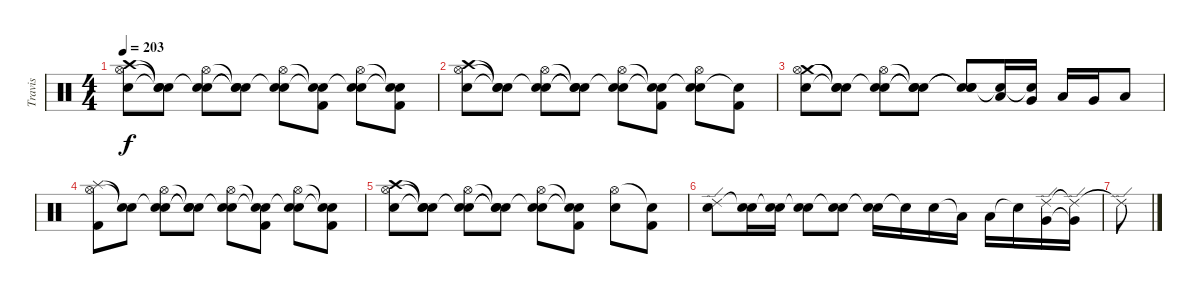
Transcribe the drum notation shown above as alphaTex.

\track ("Travis" "Travis") {instrument percussion}
\staff {score}
\articulation defaults
\ts (4 4)
\tempo 203
\clef neutral
\ks c
("Crash high (hit)" "Hi-Hat (open)" "Electric Snare (hit)").8{dy f} ("Snare (hit)"{t} "Snare (hit)"{t} "Snare (hit)"{t}).8 ("Snare (hit)"{t} "Hi-Hat (open)" "Electric Snare (hit)").8 ("Snare (hit)"{t} "Snare (hit)"{t} "Snare (hit)"{t}).8 ("Snare (hit)"{t} "Hi-Hat (open)" "Electric Snare (hit)").8 ("Snare (hit)"{t} "Snare (hit)"{t} "Kick (hit) 2").8 ("Snare (hit)"{t} "Hi-Hat (open)" "Electric Snare (hit)").8 ("Snare (hit)"{t} "Snare (hit)"{t} "Kick (hit) 2").8 |
("Crash high (hit)" "Hi-Hat (open)" "Electric Snare (hit)").8 ("Snare (hit)"{t} "Snare (hit)"{t} "Snare (hit)"{t}).8 ("Snare (hit)"{t} "Hi-Hat (open)" "Electric Snare (hit)").8 ("Snare (hit)"{t} "Snare (hit)"{t} "Snare (hit)"{t}).8 ("Snare (hit)"{t} "Hi-Hat (open)" "Electric Snare (hit)").8 ("Snare (hit)"{t} "Snare (hit)"{t} "Kick (hit) 2").8 ("Snare (hit)"{t} "Hi-Hat (open)" "Electric Snare (hit)").8 ("Snare (hit)"{t} "Kick (hit) 2").8 |
("Crash medium (hit)" "Hi-Hat (open)" "Electric Snare (hit)").8 ("Snare (hit)"{t} "Snare (hit)"{t} "Snare (hit)"{t}).8 ("Snare (hit)"{t} "Hi-Hat (open)" "Electric Snare (hit)").8 ("Snare (hit)"{t} "Snare (hit)"{t} "Snare (hit)"{t}).8 ("Snare (hit)"{t} "Snare (hit)"{t} "Electric Snare (hit)").8 ("Snare (hit)"{t} "Low Tom (hit)").16 ("Snare (hit)"{t} "Very Low Tom (hit)").16 "Low Tom (hit)".16 "Very Low Tom (hit)".16 "Low Tom (hit)".8 |
("Splash (hit)" "Hi-Hat (open)" "Kick (hit) 2").8 ("Snare (hit)"{t} "Snare (hit)"{t}).8 ("Snare (hit)"{t} "Hi-Hat (open)" "Electric Snare (hit)").8 ("Snare (hit)"{t} "Snare (hit)"{t} "Snare (hit)"{t}).8 ("Snare (hit)"{t} "Hi-Hat (open)" "Electric Snare (hit)").8 ("Snare (hit)"{t} "Snare (hit)"{t} "Kick (hit) 2").8 ("Snare (hit)"{t} "Hi-Hat (open)" "Electric Snare (hit)").8 ("Snare (hit)"{t} "Snare (hit)"{t} "Kick (hit) 2").8 |
("Crash high (hit)" "Hi-Hat (open)" "Electric Snare (hit)").8 ("Snare (hit)"{t} "Snare (hit)"{t} "Snare (hit)"{t}).8 ("Snare (hit)"{t} "Hi-Hat (open)" "Electric Snare (hit)").8 ("Snare (hit)"{t} "Snare (hit)"{t} "Snare (hit)"{t}).8 ("Snare (hit)"{t} "Hi-Hat (open)" "Electric Snare (hit)").8 ("Snare (hit)"{t} "Snare (hit)"{t} "Kick (hit) 2").8 ("Hi-Hat (open)" "Electric Snare (hit)").8 ("Snare (hit)"{t} "Kick (hit) 2").8 |
("Ride (edge) 2" "Electric Snare (hit)").8 ("Snare (hit)"{t} "Electric Snare (hit)").16 ("Snare (hit)"{t} "Electric Snare (hit)").16 ("Snare (hit)"{t} "Electric Snare (hit)").8 ("Snare (hit)"{t} "Electric Snare (hit)").8 ("Snare (hit)"{t} "Electric Snare (hit)").16 "Electric Snare (hit)"{t}.16 "Electric Snare (hit)".16 "Low Tom (hit)"{t}.16 "Low Tom (hit)".16 "Electric Snare (hit)"{t}.16 ("Ride (edge) 2" "Very Low Tom (hit)").16 ("Ride (edge) 2"{t} "Very Low Tom (hit)"{t}).16 |
"Ride (edge) 2"{t}.8
